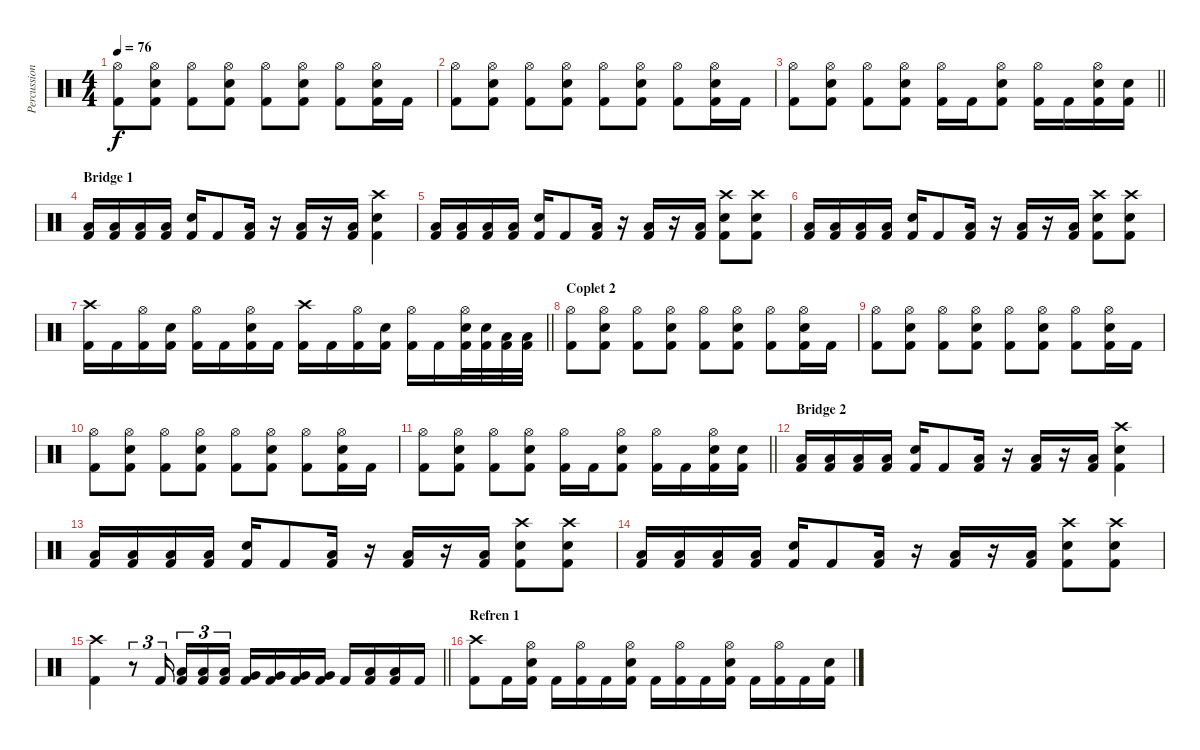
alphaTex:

\track ("Percussion" "Percussion") {instrument percussion}
\staff {score}
\articulation defaults
\ts (4 4)
\tempo 76
\clef neutral
\ks c
("Hi-Hat (open)" "Kick (hit) 2").8{dy f} ("Hi-Hat (open)" "Kick (hit) 2" "Snare (hit) 2").8 ("Hi-Hat (open)" "Kick (hit) 2").8 ("Hi-Hat (open)" "Kick (hit) 2" "Snare (hit) 2").8 ("Hi-Hat (open)" "Kick (hit) 2").8 ("Hi-Hat (open)" "Kick (hit) 2" "Snare (hit) 2").8 ("Hi-Hat (open)" "Kick (hit) 2").8 ("Hi-Hat (open)" "Kick (hit) 2" "Snare (hit) 2").16 "Kick (hit) 2".16 |
("Hi-Hat (open)" "Kick (hit) 2").8 ("Hi-Hat (open)" "Kick (hit) 2" "Snare (hit) 2").8 ("Hi-Hat (open)" "Kick (hit) 2").8 ("Hi-Hat (open)" "Kick (hit) 2" "Snare (hit) 2").8 ("Hi-Hat (open)" "Kick (hit) 2").8 ("Hi-Hat (open)" "Kick (hit) 2" "Snare (hit) 2").8 ("Hi-Hat (open)" "Kick (hit) 2").8 ("Hi-Hat (open)" "Kick (hit) 2" "Snare (hit) 2").16 "Kick (hit) 2".16 |
\barLineRight lightlight
("Hi-Hat (open)" "Kick (hit) 2").8 ("Hi-Hat (open)" "Kick (hit) 2" "Snare (hit) 2").8 ("Hi-Hat (open)" "Kick (hit) 2").8 ("Hi-Hat (open)" "Kick (hit) 2" "Snare (hit) 2").8 ("Hi-Hat (open)" "Kick (hit) 2").16 "Kick (hit) 2".16 ("Hi-Hat (open)" "Kick (hit) 2" "Snare (hit) 2").8 ("Hi-Hat (open)" "Kick (hit) 2").16 "Kick (hit) 2".16 ("Hi-Hat (open)" "Kick (hit) 2" "Snare (hit) 2").16 ("Kick (hit) 2" "Snare (hit) 2").16 |
\section ("" "Bridge 1")
("Kick (hit) 2" "Low Tom (hit)").16 ("Kick (hit) 2" "Low Tom (hit)").16 ("Kick (hit) 2" "Low Tom (hit)").16 ("Kick (hit) 2" "Low Tom (hit)").16 ("Kick (hit) 2" "Snare (hit) 2").16 "Kick (hit) 2".8 ("Low Tom (hit)" "Kick (hit) 2").16 r.16 ("Low Tom (hit)" "Kick (hit) 2").16 r.16 ("Low Tom (hit)" "Kick (hit) 2").16 ("Crash high (hit)" "Snare (hit) 2" "Kick (hit) 2").4 |
("Kick (hit) 2" "Low Tom (hit)").16 ("Kick (hit) 2" "Low Tom (hit)").16 ("Kick (hit) 2" "Low Tom (hit)").16 ("Kick (hit) 2" "Low Tom (hit)").16 ("Snare (hit) 2" "Kick (hit) 2").16 "Kick (hit) 2".8 ("Low Tom (hit)" "Kick (hit) 2").16 r.16 ("Low Tom (hit)" "Kick (hit) 2").16 r.16 ("Low Tom (hit)" "Kick (hit) 2").16 ("Crash high (hit)" "Snare (hit) 2" "Kick (hit) 2").8 ("Crash high (hit)" "Snare (hit) 2" "Kick (hit) 2").8 |
("Kick (hit) 2" "Low Tom (hit)").16 ("Kick (hit) 2" "Low Tom (hit)").16 ("Kick (hit) 2" "Low Tom (hit)").16 ("Kick (hit) 2" "Low Tom (hit)").16 ("Snare (hit) 2" "Kick (hit) 2").16 "Kick (hit) 2".8 ("Low Tom (hit)" "Kick (hit) 2").16 r.16 ("Low Tom (hit)" "Kick (hit) 2").16 r.16 ("Low Tom (hit)" "Kick (hit) 2").16 ("Crash high (hit)" "Snare (hit) 2" "Kick (hit) 2").8 ("Crash high (hit)" "Snare (hit) 2" "Kick (hit) 2").8 |
\barLineRight lightlight
("Crash high (hit)" "Kick (hit) 2").16 "Kick (hit) 2".16 ("Hi-Hat (open)" "Kick (hit) 2").16 ("Snare (hit) 2" "Kick (hit) 2").16 ("Hi-Hat (open)" "Kick (hit) 2").16 "Kick (hit) 2".16 ("Hi-Hat (open)" "Snare (hit) 2" "Kick (hit) 2").16 "Kick (hit) 2".16 ("Crash high (hit)" "Kick (hit) 2").16 "Kick (hit) 2".16 ("Hi-Hat (open)" "Kick (hit) 2").16 ("Snare (hit) 2" "Kick (hit) 2").16 ("Hi-Hat (open)" "Kick (hit) 2").16 "Kick (hit) 2".16 ("Hi-Hat (open)" "Snare (hit) 2" "Kick (hit) 2").32 ("Snare (hit) 2" "Kick (hit) 2").32 ("Low Tom (hit)" "Kick (hit) 2").32 ("Low Tom (hit)" "Kick (hit) 2").32 |
\section ("" "Coplet 2")
("Hi-Hat (open)" "Kick (hit) 2").8 ("Hi-Hat (open)" "Snare (hit) 2" "Kick (hit) 2").8 ("Hi-Hat (open)" "Kick (hit) 2").8 ("Hi-Hat (open)" "Snare (hit) 2" "Kick (hit) 2").8 ("Hi-Hat (open)" "Kick (hit) 2").8 ("Hi-Hat (open)" "Snare (hit) 2" "Kick (hit) 2").8 ("Hi-Hat (open)" "Kick (hit) 2").8 ("Hi-Hat (open)" "Snare (hit) 2" "Kick (hit) 2").16 "Kick (hit) 2".16 |
("Hi-Hat (open)" "Kick (hit) 2").8 ("Hi-Hat (open)" "Kick (hit) 2" "Snare (hit) 2").8 ("Hi-Hat (open)" "Kick (hit) 2").8 ("Hi-Hat (open)" "Kick (hit) 2" "Snare (hit) 2").8 ("Hi-Hat (open)" "Kick (hit) 2").8 ("Hi-Hat (open)" "Kick (hit) 2" "Snare (hit) 2").8 ("Hi-Hat (open)" "Kick (hit) 2").8 ("Hi-Hat (open)" "Kick (hit) 2" "Snare (hit) 2").16 "Kick (hit) 2".16 |
("Hi-Hat (open)" "Kick (hit) 2").8 ("Hi-Hat (open)" "Kick (hit) 2" "Snare (hit) 2").8 ("Hi-Hat (open)" "Kick (hit) 2").8 ("Hi-Hat (open)" "Kick (hit) 2" "Snare (hit) 2").8 ("Hi-Hat (open)" "Kick (hit) 2").8 ("Hi-Hat (open)" "Kick (hit) 2" "Snare (hit) 2").8 ("Hi-Hat (open)" "Kick (hit) 2").8 ("Hi-Hat (open)" "Kick (hit) 2" "Snare (hit) 2").16 "Kick (hit) 2".16 |
\barLineRight lightlight
("Hi-Hat (open)" "Kick (hit) 2").8 ("Hi-Hat (open)" "Kick (hit) 2" "Snare (hit) 2").8 ("Hi-Hat (open)" "Kick (hit) 2").8 ("Hi-Hat (open)" "Kick (hit) 2" "Snare (hit) 2").8 ("Hi-Hat (open)" "Kick (hit) 2").16 "Kick (hit) 2".16 ("Hi-Hat (open)" "Kick (hit) 2" "Snare (hit) 2").8 ("Hi-Hat (open)" "Kick (hit) 2").16 "Kick (hit) 2".16 ("Hi-Hat (open)" "Kick (hit) 2" "Snare (hit) 2").16 ("Kick (hit) 2" "Snare (hit) 2").16 |
\section ("" "Bridge 2")
("Kick (hit) 2" "Low Tom (hit)").16 ("Kick (hit) 2" "Low Tom (hit)").16 ("Kick (hit) 2" "Low Tom (hit)").16 ("Kick (hit) 2" "Low Tom (hit)").16 ("Kick (hit) 2" "Snare (hit) 2").16 "Kick (hit) 2".8 ("Low Tom (hit)" "Kick (hit) 2").16 r.16 ("Low Tom (hit)" "Kick (hit) 2").16 r.16 ("Low Tom (hit)" "Kick (hit) 2").16 ("Crash high (hit)" "Snare (hit) 2" "Kick (hit) 2").4 |
("Kick (hit) 2" "Low Tom (hit)").16 ("Kick (hit) 2" "Low Tom (hit)").16 ("Kick (hit) 2" "Low Tom (hit)").16 ("Kick (hit) 2" "Low Tom (hit)").16 ("Snare (hit) 2" "Kick (hit) 2").16 "Kick (hit) 2".8 ("Low Tom (hit)" "Kick (hit) 2").16 r.16 ("Low Tom (hit)" "Kick (hit) 2").16 r.16 ("Low Tom (hit)" "Kick (hit) 2").16 ("Crash high (hit)" "Snare (hit) 2" "Kick (hit) 2").8 ("Crash high (hit)" "Snare (hit) 2" "Kick (hit) 2").8 |
("Kick (hit) 2" "Low Tom (hit)").16 ("Kick (hit) 2" "Low Tom (hit)").16 ("Kick (hit) 2" "Low Tom (hit)").16 ("Kick (hit) 2" "Low Tom (hit)").16 ("Snare (hit) 2" "Kick (hit) 2").16 "Kick (hit) 2".8 ("Low Tom (hit)" "Kick (hit) 2").16 r.16 ("Low Tom (hit)" "Kick (hit) 2").16 r.16 ("Low Tom (hit)" "Kick (hit) 2").16 ("Crash high (hit)" "Snare (hit) 2" "Kick (hit) 2").8 ("Crash high (hit)" "Snare (hit) 2" "Kick (hit) 2").8 |
\barLineRight lightlight
("Crash high (hit)" "Kick (hit) 2").4 r.8{tu (3 2)} "Kick (hit) 2".16{tu (3 2) beam splitsecondary} ("Low Tom (hit)" "Kick (hit) 2").16{tu (3 2)} ("Low Tom (hit)" "Kick (hit) 2").16{tu (3 2)} ("Low Tom (hit)" "Kick (hit) 2").16{tu (3 2)} ("Very Low Tom (hit)" "Kick (hit) 2").16 ("Very Low Tom (hit)" "Kick (hit) 2").16 ("Very Low Tom (hit)" "Kick (hit) 2").16 ("Very Low Tom (hit)" "Kick (hit) 2").16 "Kick (hit) 2".16 ("Low Floor Tom (hit)" "Kick (hit) 2").16 ("Low Floor Tom (hit)" "Kick (hit) 2").16 "Kick (hit) 2".16 |
\section ("" "Refren 1")
("Crash high (hit)" "Kick (hit) 2").8 "Kick (hit) 2".16 ("Hi-Hat (open)" "Snare (hit) 2" "Kick (hit) 2").16 "Kick (hit) 2".16 ("Hi-Hat (open)" "Kick (hit) 2").16 "Kick (hit) 2".16 ("Hi-Hat (open)" "Snare (hit) 2" "Kick (hit) 2").16 "Kick (hit) 2".16 ("Hi-Hat (open)" "Kick (hit) 2").16 "Kick (hit) 2".16 ("Hi-Hat (open)" "Snare (hit) 2" "Kick (hit) 2").16 "Kick (hit) 2".16 ("Hi-Hat (open)" "Kick (hit) 2").16 "Kick (hit) 2".16 ("Snare (hit) 2" "Kick (hit) 2").16
